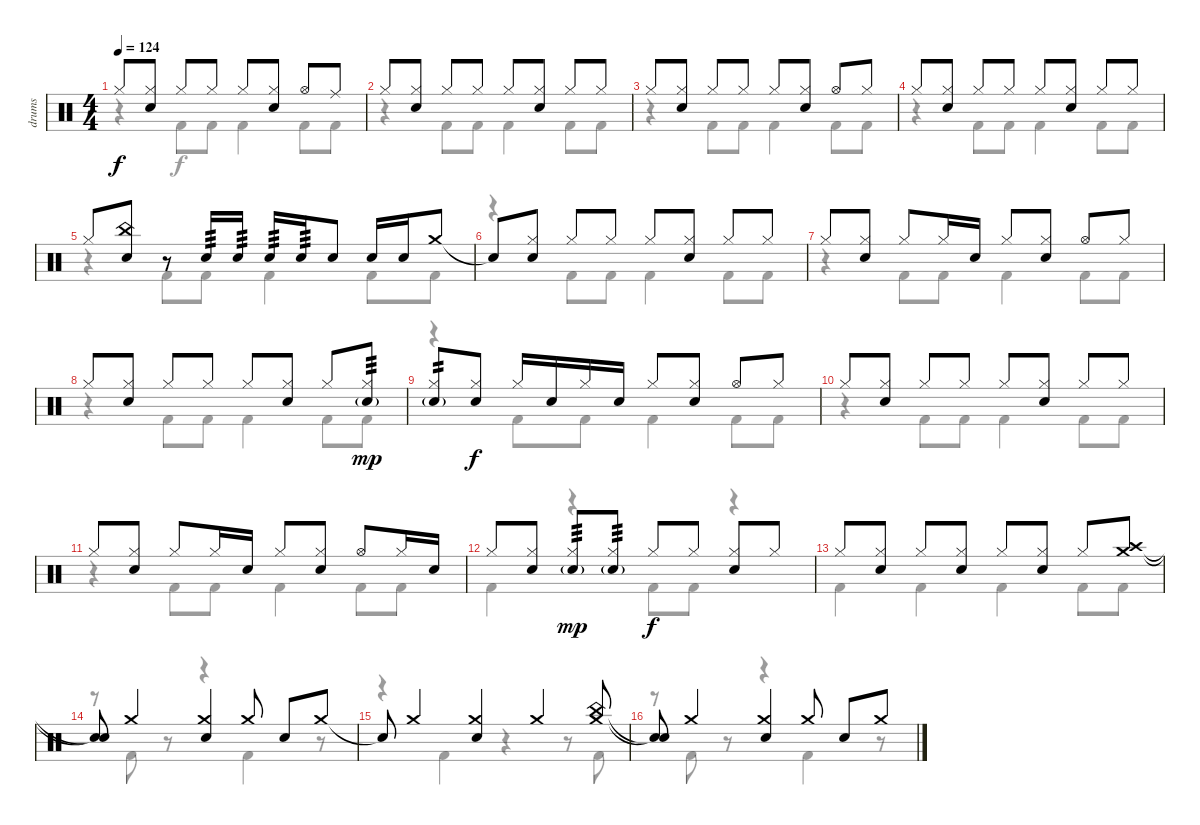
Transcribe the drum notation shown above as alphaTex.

\track ("drums" "drums") {instrument percussion}
\staff {score}
\articulation defaults
\voice
\ts (4 4)
\tempo 124
\clef neutral
\ks c "Hi-Hat (closed)".8{dy f}
("Hi-Hat (closed)" "Snare (hit) 2").8 "Hi-Hat (closed)".8 "Hi-Hat (closed)".8 "Hi-Hat (closed)".8 ("Hi-Hat (closed)" "Snare (hit) 2").8 "Hi-Hat (open)".8 "Ride (middle)".8 |
"Hi-Hat (closed)".8 ("Hi-Hat (closed)" "Snare (hit) 2").8 "Hi-Hat (closed)".8 "Hi-Hat (closed)".8 "Hi-Hat (closed)".8 ("Hi-Hat (closed)" "Snare (hit) 2").8 "Hi-Hat (closed)".8 "Hi-Hat (closed)".8 |
"Hi-Hat (closed)".8 ("Hi-Hat (closed)" "Snare (hit) 2").8 "Hi-Hat (closed)".8 "Hi-Hat (closed)".8 "Hi-Hat (closed)".8 ("Hi-Hat (closed)" "Snare (hit) 2").8 "Hi-Hat (open)".8 "Hi-Hat (closed)".8 |
"Hi-Hat (closed)".8 ("Hi-Hat (closed)" "Snare (hit) 2").8 "Hi-Hat (closed)".8 "Hi-Hat (closed)".8 "Hi-Hat (closed)".8 ("Hi-Hat (closed)" "Snare (hit) 2").8 "Hi-Hat (closed)".8 "Hi-Hat (closed)".8 |
"Hi-Hat (closed)".8 ("China (hit)" "Snare (hit) 2").8 r.8 "Snare (hit) 2".16{tp 3} "Snare (hit) 2".16{tp 3} "Snare (hit) 2".16{tp 3} "Snare (hit) 2".16{tp 3} "Snare (hit) 2".8 "Snare (hit) 2".16 "Snare (hit) 2".16 "Crash medium (hit)".8 |
"Snare (hit)"{t}.8 ("Hi-Hat (closed)" "Snare (hit) 2").8 "Hi-Hat (closed)".8 "Hi-Hat (closed)".8 "Hi-Hat (closed)".8 ("Hi-Hat (closed)" "Snare (hit) 2").8 "Hi-Hat (closed)".8 "Hi-Hat (closed)".8 |
"Hi-Hat (closed)".8 ("Hi-Hat (closed)" "Snare (hit) 2").8 "Hi-Hat (closed)".8 "Hi-Hat (closed)".16 "Snare (hit) 2".16 "Hi-Hat (closed)".8 ("Hi-Hat (closed)" "Snare (hit) 2").8 "Hi-Hat (open)".8 "Hi-Hat (closed)".8 |
"Hi-Hat (closed)".8 ("Hi-Hat (closed)" "Snare (hit) 2").8 "Hi-Hat (closed)".8 "Hi-Hat (closed)".8 "Hi-Hat (closed)".8 ("Hi-Hat (closed)" "Snare (hit) 2").8 "Hi-Hat (closed)".8 ("Hi-Hat (closed)" "Snare (hit) 2"{g}).8{tp 3 dy mp} |
("Hi-Hat (closed)" "Snare (hit) 2"{g}).8{tp 2} ("Hi-Hat (closed)" "Snare (hit) 2").8{dy f} "Hi-Hat (closed)".16 "Snare (hit) 2".16 "Hi-Hat (closed)".16 "Snare (hit) 2".16 "Hi-Hat (closed)".8 ("Hi-Hat (closed)" "Snare (hit) 2").8 "Hi-Hat (open)".8 "Hi-Hat (closed)".8 |
"Hi-Hat (closed)".8 ("Hi-Hat (closed)" "Snare (hit) 2").8 "Hi-Hat (closed)".8 "Hi-Hat (closed)".8 "Hi-Hat (closed)".8 ("Hi-Hat (closed)" "Snare (hit) 2").8 "Hi-Hat (closed)".8 "Hi-Hat (closed)".8 |
"Hi-Hat (closed)".8 ("Hi-Hat (closed)" "Snare (hit) 2").8 "Hi-Hat (closed)".8 "Hi-Hat (closed)".16 "Snare (hit) 2".16 "Hi-Hat (closed)".8 ("Hi-Hat (closed)" "Snare (hit) 2").8 "Hi-Hat (open)".8 "Hi-Hat (closed)".16 "Snare (hit) 2".16 |
"Hi-Hat (closed)".8 ("Hi-Hat (closed)" "Snare (hit) 2").8 ("Hi-Hat (closed)" "Snare (hit) 2"{g}).8{tp 3 dy mp} ("Hi-Hat (closed)" "Snare (hit) 2"{g}).8{tp 3} "Hi-Hat (closed)".8{dy f} "Hi-Hat (closed)".8 ("Hi-Hat (closed)" "Snare (hit) 2").8 "Hi-Hat (closed)".8 |
"Hi-Hat (closed)".8 ("Hi-Hat (closed)" "Snare (hit) 2").8 "Hi-Hat (closed)".8 ("Hi-Hat (closed)" "Snare (hit) 2").8 "Hi-Hat (closed)".8 ("Hi-Hat (closed)" "Snare (hit) 2").8 "Hi-Hat (closed)".8 ("Crash medium (hit)" "Crash high (hit)").8 |
("Snare (hit)"{t} "Snare (hit)"{t}).8 "Crash medium (hit)".4 ("Crash medium (hit)" "Snare (hit) 2").4 "Crash medium (hit)".8 "Snare (hit) 2".8 "Crash medium (hit)".8 |
"Snare (hit)"{t}.8 "Crash medium (hit)".4 ("Crash medium (hit)" "Snare (hit) 2").4 "Crash medium (hit)".4 ("Crash medium (hit)" "China (hit)").8 |
("Snare (hit)"{t} "Snare (hit)"{t}).8 "Crash medium (hit)".4 ("Crash medium (hit)" "Snare (hit) 2").4 "Crash medium (hit)".8 "Snare (hit) 2".8 "Crash medium (hit)".8
\voice
\clef neutral
\ottava regular
\simile none
\ks c
r.4{dy f} "Kick (hit) 2".8 "Kick (hit) 2".8 "Kick (hit) 2".4 "Kick (hit) 2".8 "Kick (hit) 2".8 |
r.4 "Kick (hit) 2".8 "Kick (hit) 2".8 "Kick (hit) 2".4 "Kick (hit) 2".8 "Kick (hit) 2".8 |
r.4 "Kick (hit) 2".8 "Kick (hit) 2".8 "Kick (hit) 2".4 "Kick (hit) 2".8 "Kick (hit) 2".8 |
r.4 "Kick (hit) 2".8 "Kick (hit) 2".8 "Kick (hit) 2".4 "Kick (hit) 2".8 "Kick (hit) 2".8 |
r.4 "Kick (hit) 2".8 "Kick (hit) 2".8 "Kick (hit) 2".4 "Kick (hit) 2".8 "Kick (hit) 2".8 |
r.4 "Kick (hit) 2".8 "Kick (hit) 2".8 "Kick (hit) 2".4 "Kick (hit) 2".8 "Kick (hit) 2".8 |
r.4 "Kick (hit) 2".8 "Kick (hit) 2".8 "Kick (hit) 2".4 "Kick (hit) 2".8 "Kick (hit) 2".8 |
r.4 "Kick (hit) 2".8 "Kick (hit) 2".8 "Kick (hit) 2".4 "Kick (hit) 2".8 "Kick (hit) 2".8 |
r.4 "Kick (hit) 2".8 "Kick (hit) 2".8 "Kick (hit) 2".4 "Kick (hit) 2".8 "Kick (hit) 2".8 |
r.4 "Kick (hit) 2".8 "Kick (hit) 2".8 "Kick (hit) 2".4 "Kick (hit) 2".8 "Kick (hit) 2".8 |
r.4 "Kick (hit) 2".8 "Kick (hit) 2".8 "Kick (hit) 2".4 "Kick (hit) 2".8 "Kick (hit) 2".8 |
"Kick (hit) 2".4 r.4 "Kick (hit) 2".8 "Kick (hit) 2".8 r.4 |
"Kick (hit) 2".4 "Kick (hit) 2".4 "Kick (hit) 2".4 "Kick (hit) 2".8 "Kick (hit) 2".8 |
r.8 "Kick (hit) 2".8 r.8 r.4 "Kick (hit) 2".4 r.8 |
r.4 "Kick (hit) 2".4 r.4 r.8 "Kick (hit) 2".8 |
r.8 "Kick (hit) 2".8 r.8 r.4 "Kick (hit) 2".4 r.8
